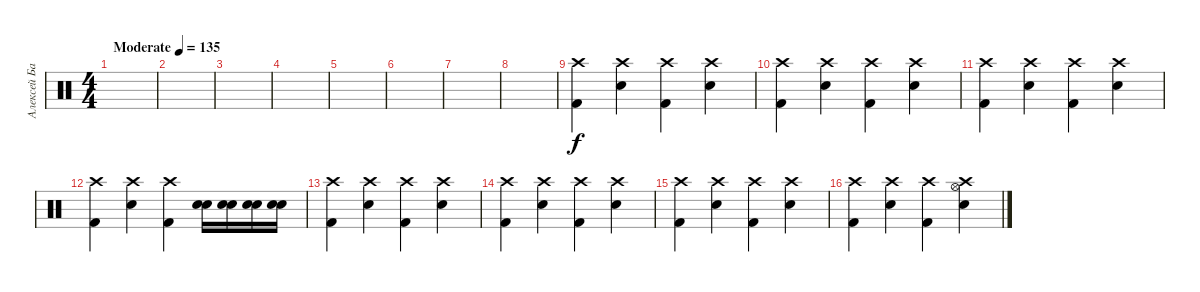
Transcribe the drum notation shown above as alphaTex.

\track ("Алексей Барзилович" "Алексей Ба") {instrument percussion}
\staff {score}
\articulation defaults
\ts (4 4)
\tempo (135 "Moderate")
\clef neutral
\ks c
|
|
|
|
|
|
|
|
("Crash high (hit)" "Kick (hit) 2").4 ("Crash high (hit)" "Electric Snare (hit)").4 ("Crash high (hit)" "Kick (hit) 2").4 ("Crash high (hit)" "Electric Snare (hit)").4 |
("Crash high (hit)" "Kick (hit) 2").4 ("Crash high (hit)" "Electric Snare (hit)").4 ("Crash high (hit)" "Kick (hit) 2").4 ("Crash high (hit)" "Electric Snare (hit)").4 |
("Crash high (hit)" "Kick (hit) 2").4 ("Crash high (hit)" "Electric Snare (hit)").4 ("Crash high (hit)" "Kick (hit) 2").4 ("Crash high (hit)" "Electric Snare (hit)").4 |
("Crash high (hit)" "Kick (hit) 2").4 ("Crash high (hit)" "Electric Snare (hit)").4 ("Crash high (hit)" "Kick (hit) 2").4 ("Snare (hit) 2" "Electric Snare (hit)").16 ("Snare (hit) 2" "Electric Snare (hit)").16 ("Snare (hit) 2" "Electric Snare (hit)").16 ("Snare (hit) 2" "Electric Snare (hit)").16 |
("Crash high (hit)" "Kick (hit) 2").4 ("Crash high (hit)" "Electric Snare (hit)").4 ("Crash high (hit)" "Kick (hit) 2").4 ("Crash high (hit)" "Electric Snare (hit)").4 |
("Crash high (hit)" "Kick (hit) 2").4 ("Crash high (hit)" "Electric Snare (hit)").4 ("Crash high (hit)" "Kick (hit) 2").4 ("Crash high (hit)" "Electric Snare (hit)").4 |
("Crash high (hit)" "Kick (hit) 2").4 ("Crash high (hit)" "Electric Snare (hit)").4 ("Crash high (hit)" "Kick (hit) 2").4 ("Crash high (hit)" "Electric Snare (hit)").4 |
("Crash high (hit)" "Kick (hit) 2").4 ("Crash high (hit)" "Electric Snare (hit)").4 ("Crash high (hit)" "Kick (hit) 2").4 ("Hi-Hat (open)" "Electric Snare (hit)" "Crash high (hit)").4
